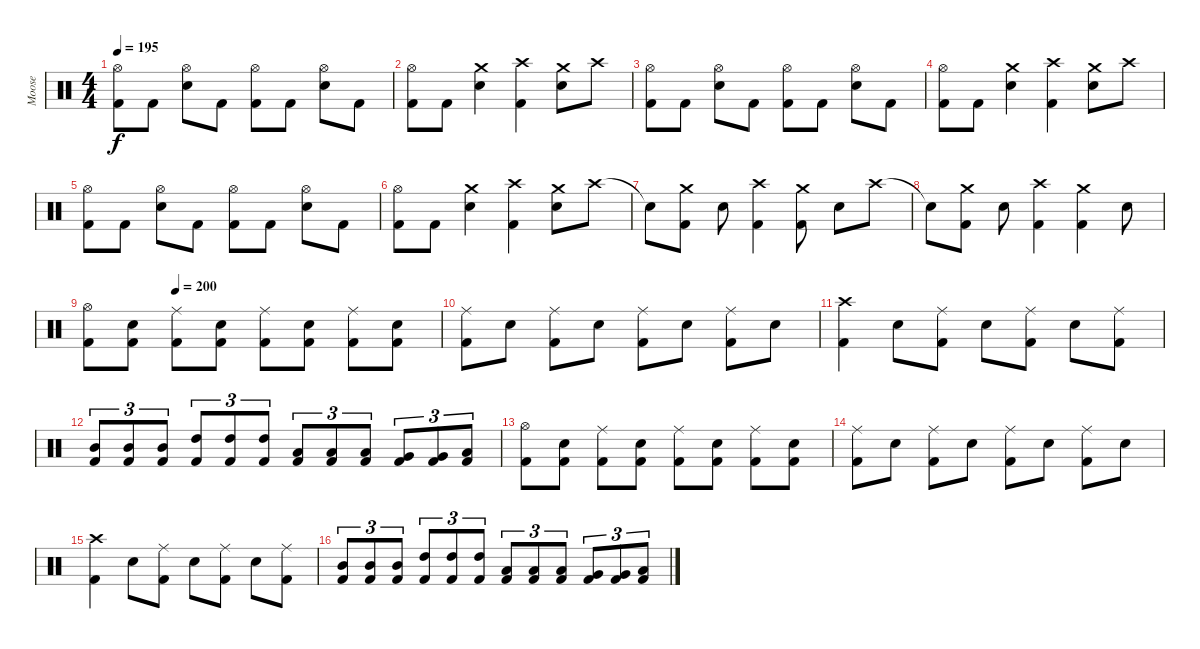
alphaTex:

\track ("Moose" "Moose") {instrument percussion}
\staff {score}
\articulation defaults
\ts (4 4)
\tempo 195
\clef neutral
\ks c
("Hi-Hat (open)" "Kick (hit) 2").8{dy f} "Kick (hit) 2".8 ("Hi-Hat (open)" "Snare (hit) 2").8 "Kick (hit) 2".8 ("Hi-Hat (open)" "Kick (hit) 2").8 "Kick (hit) 2".8 ("Hi-Hat (open)" "Snare (hit) 2").8 "Kick (hit) 2".8 |
("Hi-Hat (open)" "Kick (hit) 2").8 "Kick (hit) 2".8 ("Crash medium (hit)" "Snare (hit) 2").4 ("Crash high (hit)" "Kick (hit) 2").4 ("Crash medium (hit)" "Snare (hit) 2").8 "Crash high (hit)".8 |
("Hi-Hat (open)" "Kick (hit) 2").8 "Kick (hit) 2".8 ("Hi-Hat (open)" "Snare (hit) 2").8 "Kick (hit) 2".8 ("Hi-Hat (open)" "Kick (hit) 2").8 "Kick (hit) 2".8 ("Hi-Hat (open)" "Snare (hit) 2").8 "Kick (hit) 2".8 |
("Hi-Hat (open)" "Kick (hit) 2").8 "Kick (hit) 2".8 ("Crash medium (hit)" "Snare (hit) 2").4 ("Crash high (hit)" "Kick (hit) 2").4 ("Crash medium (hit)" "Snare (hit) 2").8 "Crash high (hit)".8 |
("Hi-Hat (open)" "Kick (hit) 2").8 "Kick (hit) 2".8 ("Hi-Hat (open)" "Snare (hit) 2").8 "Kick (hit) 2".8 ("Hi-Hat (open)" "Kick (hit) 2").8 "Kick (hit) 2".8 ("Hi-Hat (open)" "Snare (hit) 2").8 "Kick (hit) 2".8 |
("Hi-Hat (open)" "Kick (hit) 2").8 "Kick (hit) 2".8 ("Crash medium (hit)" "Snare (hit) 2").4 ("Crash high (hit)" "Kick (hit) 2").4 ("Crash medium (hit)" "Snare (hit) 2").8 "Crash high (hit)".8 |
"Snare (hit)"{t}.8 ("Crash medium (hit)" "Kick (hit) 2").8 "Snare (hit) 2".8 ("Crash high (hit)" "Kick (hit) 2").4 ("Crash medium (hit)" "Kick (hit) 2").8 "Snare (hit) 2".8 "Crash high (hit)".8 |
"Snare (hit)"{t}.8 ("Crash medium (hit)" "Kick (hit) 2").8 "Snare (hit) 2".8 ("Crash high (hit)" "Kick (hit) 2").4 ("Crash medium (hit)" "Kick (hit) 2").4 "Snare (hit) 2".8 |
\tempo (200 0.25)
("Hi-Hat (open)" "Kick (hit) 2").8 ("Snare (hit) 2" "Kick (hit) 2").8 ("Ride (middle)" "Kick (hit) 2").8 ("Snare (hit) 2" "Kick (hit) 2").8 ("Ride (middle)" "Kick (hit) 2").8 ("Snare (hit) 2" "Kick (hit) 2").8 ("Ride (middle)" "Kick (hit) 2").8 ("Snare (hit) 2" "Kick (hit) 2").8 |
("Ride (middle)" "Kick (hit) 2").8 "Snare (hit) 2".8 ("Ride (middle)" "Kick (hit) 2").8 "Snare (hit) 2".8 ("Ride (middle)" "Kick (hit) 2").8 "Snare (hit) 2".8 ("Ride (middle)" "Kick (hit) 2").8 "Snare (hit) 2".8 |
("Crash high (hit)" "Kick (hit) 2").4 "Snare (hit) 2".8 ("Ride (middle)" "Kick (hit) 2").8 "Snare (hit) 2".8 ("Ride (middle)" "Kick (hit) 2").8 "Snare (hit) 2".8 ("Ride (middle)" "Kick (hit) 2").8 |
("Mid Tom (hit)" "Kick (hit) 2").8{tu (3 2)} ("Mid Tom (hit)" "Kick (hit) 2").8{tu (3 2)} ("Mid Tom (hit)" "Kick (hit) 2").8{tu (3 2)} ("High Tom (hit)" "Kick (hit) 2").8{tu (3 2)} ("High Tom (hit)" "Kick (hit) 2").8{tu (3 2)} ("High Tom (hit)" "Kick (hit) 2").8{tu (3 2)} ("Low Tom (hit)" "Kick (hit) 2").8{tu (3 2)} ("Low Tom (hit)" "Kick (hit) 2").8{tu (3 2)} ("Low Tom (hit)" "Kick (hit) 2").8{tu (3 2)} ("Very Low Tom (hit)" "Kick (hit) 2").8{tu (3 2)} ("Very Low Tom (hit)" "Kick (hit) 2").8{tu (3 2)} ("Low Floor Tom (hit)" "Kick (hit) 2").8{tu (3 2)} |
("Hi-Hat (open)" "Kick (hit) 2").8 ("Snare (hit) 2" "Kick (hit) 2").8 ("Ride (middle)" "Kick (hit) 2").8 ("Snare (hit) 2" "Kick (hit) 2").8 ("Ride (middle)" "Kick (hit) 2").8 ("Snare (hit) 2" "Kick (hit) 2").8 ("Ride (middle)" "Kick (hit) 2").8 ("Snare (hit) 2" "Kick (hit) 2").8 |
("Ride (middle)" "Kick (hit) 2").8 "Snare (hit) 2".8 ("Ride (middle)" "Kick (hit) 2").8 "Snare (hit) 2".8 ("Ride (middle)" "Kick (hit) 2").8 "Snare (hit) 2".8 ("Ride (middle)" "Kick (hit) 2").8 "Snare (hit) 2".8 |
("Crash high (hit)" "Kick (hit) 2").4 "Snare (hit) 2".8 ("Ride (middle)" "Kick (hit) 2").8 "Snare (hit) 2".8 ("Ride (middle)" "Kick (hit) 2").8 "Snare (hit) 2".8 ("Ride (middle)" "Kick (hit) 2").8 |
("Mid Tom (hit)" "Kick (hit) 2").8{tu (3 2)} ("Mid Tom (hit)" "Kick (hit) 2").8{tu (3 2)} ("Mid Tom (hit)" "Kick (hit) 2").8{tu (3 2)} ("High Tom (hit)" "Kick (hit) 2").8{tu (3 2)} ("High Tom (hit)" "Kick (hit) 2").8{tu (3 2)} ("High Tom (hit)" "Kick (hit) 2").8{tu (3 2)} ("Low Tom (hit)" "Kick (hit) 2").8{tu (3 2)} ("Low Tom (hit)" "Kick (hit) 2").8{tu (3 2)} ("Low Tom (hit)" "Kick (hit) 2").8{tu (3 2)} ("Very Low Tom (hit)" "Kick (hit) 2").8{tu (3 2)} ("Very Low Tom (hit)" "Kick (hit) 2").8{tu (3 2)} ("Low Floor Tom (hit)" "Kick (hit) 2").8{tu (3 2)}
